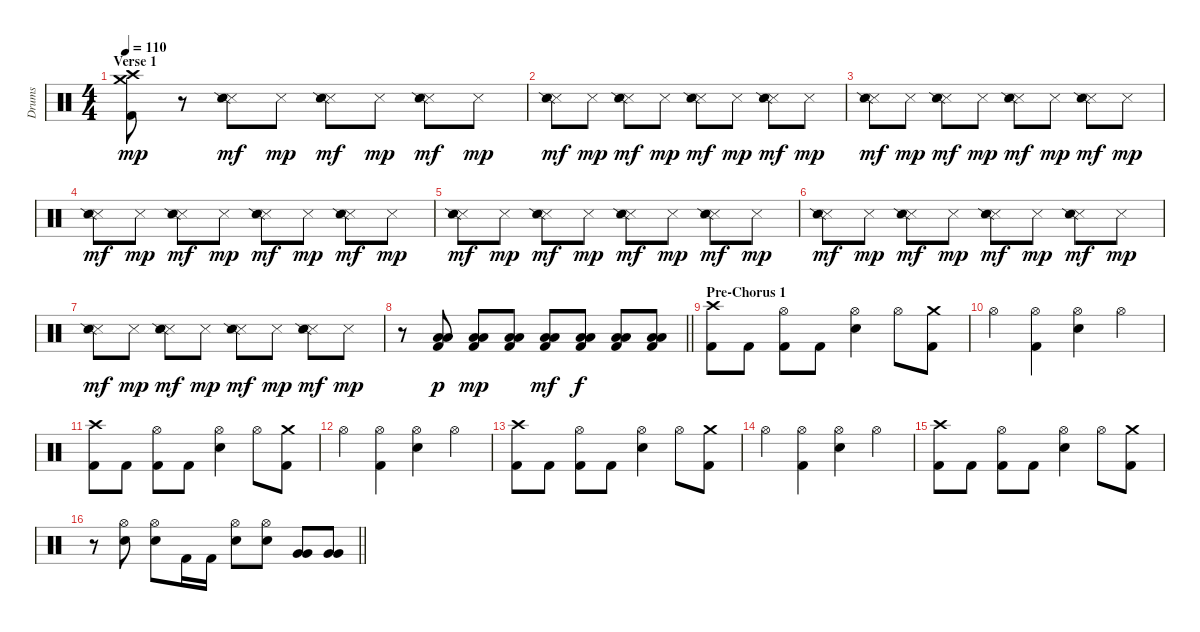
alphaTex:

\track ("Drums" "Drums") {instrument percussion}
\staff {score}
\articulation defaults
\ts (4 4)
\section ("" "Verse 1")
\tempo 110
\clef neutral
\ks c
("Crash high (hit)" "Crash medium (hit)" "Kick (hit) 2").8{dy mp} r.8 ("Snare (side stick) 3" "Snare (side stick) 2").8{dy mf} "Snare (side stick) 3".8{dy mp} ("Snare (side stick) 3" "Snare (side stick) 2").8{dy mf balance 12} "Snare (side stick) 3".8{dy mp balance 4} ("Snare (side stick) 3" "Snare (side stick) 2").8{dy mf} "Snare (side stick) 3".8{dy mp} |
("Snare (side stick) 3" "Snare (side stick) 2").8{dy mf balance 4} "Snare (side stick) 3".8{dy mp} ("Snare (side stick) 3" "Snare (side stick) 2").8{dy mf} "Snare (side stick) 3".8{dy mp} ("Snare (side stick) 3" "Snare (side stick) 2").8{dy mf} "Snare (side stick) 3".8{dy mp} ("Snare (side stick) 3" "Snare (side stick) 2").8{dy mf} "Snare (side stick) 3".8{dy mp} |
("Snare (side stick) 3" "Snare (side stick) 2").8{dy mf balance 12} "Snare (side stick) 3".8{dy mp} ("Snare (side stick) 3" "Snare (side stick) 2").8{dy mf} "Snare (side stick) 3".8{dy mp} ("Snare (side stick) 3" "Snare (side stick) 2").8{dy mf} "Snare (side stick) 3".8{dy mp} ("Snare (side stick) 3" "Snare (side stick) 2").8{dy mf} "Snare (side stick) 3".8{dy mp} |
("Snare (side stick) 3" "Snare (side stick) 2").8{dy mf balance 4} "Snare (side stick) 3".8{dy mp} ("Snare (side stick) 3" "Snare (side stick) 2").8{dy mf} "Snare (side stick) 3".8{dy mp} ("Snare (side stick) 3" "Snare (side stick) 2").8{dy mf} "Snare (side stick) 3".8{dy mp} ("Snare (side stick) 3" "Snare (side stick) 2").8{dy mf} "Snare (side stick) 3".8{dy mp} |
("Snare (side stick) 3" "Snare (side stick) 2").8{dy mf balance 12} "Snare (side stick) 3".8{dy mp} ("Snare (side stick) 3" "Snare (side stick) 2").8{dy mf} "Snare (side stick) 3".8{dy mp} ("Snare (side stick) 3" "Snare (side stick) 2").8{dy mf} "Snare (side stick) 3".8{dy mp} ("Snare (side stick) 3" "Snare (side stick) 2").8{dy mf} "Snare (side stick) 3".8{dy mp} |
("Snare (side stick) 3" "Snare (side stick) 2").8{dy mf balance 4} "Snare (side stick) 3".8{dy mp} ("Snare (side stick) 3" "Snare (side stick) 2").8{dy mf} "Snare (side stick) 3".8{dy mp} ("Snare (side stick) 3" "Snare (side stick) 2").8{dy mf} "Snare (side stick) 3".8{dy mp} ("Snare (side stick) 3" "Snare (side stick) 2").8{dy mf} "Snare (side stick) 3".8{dy mp} |
("Snare (side stick) 3" "Snare (side stick) 2").8{dy mf balance 12} "Snare (side stick) 3".8{dy mp} ("Snare (side stick) 3" "Snare (side stick) 2").8{dy mf} "Snare (side stick) 3".8{dy mp} ("Snare (side stick) 3" "Snare (side stick) 2").8{dy mf} "Snare (side stick) 3".8{dy mp} ("Snare (side stick) 3" "Snare (side stick) 2").8{dy mf} "Snare (side stick) 3".8{dy mp} |
\barLineRight lightlight
r.8{balance 8} ("Low Tom (hit)" "Low Floor Tom (hit)" "Kick (hit) 2").8{dy p} ("Low Tom (hit)" "Low Floor Tom (hit)" "Kick (hit) 2").8{dy mp} ("Low Tom (hit)" "Low Floor Tom (hit)" "Kick (hit) 2").8 ("Low Tom (hit)" "Low Floor Tom (hit)" "Kick (hit) 2").8{dy mf} ("Low Tom (hit)" "Low Floor Tom (hit)" "Kick (hit) 2").8{dy f} ("Low Tom (hit)" "Low Floor Tom (hit)" "Kick (hit) 2").8 ("Low Tom (hit)" "Low Floor Tom (hit)" "Kick (hit) 2").8 |
\section ("" "Pre-Chorus 1")
("Crash high (hit)" "Kick (hit) 2").8 "Kick (hit) 2".8 ("Hi-Hat (open)" "Kick (hit) 2").8 "Kick (hit) 2".8 ("Hi-Hat (open)" "Electric Snare (hit)").4 "Hi-Hat (open)".8 ("Crash medium (hit)" "Kick (hit) 2").8 |
"Hi-Hat (open)".4 ("Hi-Hat (open)" "Kick (hit) 2").4 ("Hi-Hat (open)" "Electric Snare (hit)").4 "Hi-Hat (open)".4 |
("Crash high (hit)" "Kick (hit) 2").8 "Kick (hit) 2".8 ("Hi-Hat (open)" "Kick (hit) 2").8 "Kick (hit) 2".8 ("Hi-Hat (open)" "Electric Snare (hit)").4 "Hi-Hat (open)".8 ("Crash medium (hit)" "Kick (hit) 2").8 |
"Hi-Hat (open)".4 ("Hi-Hat (open)" "Kick (hit) 2").4 ("Hi-Hat (open)" "Electric Snare (hit)").4 "Hi-Hat (open)".4 |
("Crash high (hit)" "Kick (hit) 2").8 "Kick (hit) 2".8 ("Hi-Hat (open)" "Kick (hit) 2").8 "Kick (hit) 2".8 ("Hi-Hat (open)" "Electric Snare (hit)").4 "Hi-Hat (open)".8 ("Crash medium (hit)" "Kick (hit) 2").8 |
"Hi-Hat (open)".4 ("Hi-Hat (open)" "Kick (hit) 2").4 ("Hi-Hat (open)" "Electric Snare (hit)").4 "Hi-Hat (open)".4 |
("Crash high (hit)" "Kick (hit) 2").8 "Kick (hit) 2".8 ("Hi-Hat (open)" "Kick (hit) 2").8 "Kick (hit) 2".8 ("Hi-Hat (open)" "Electric Snare (hit)").4 "Hi-Hat (open)".8 ("Crash medium (hit)" "Kick (hit) 2").8 |
\barLineRight lightlight
r.8 ("Hi-Hat (open)" "Electric Snare (hit)").8 ("Hi-Hat (open)" "Electric Snare (hit)").8 "Kick (hit) 2".16 "Kick (hit) 2".16 ("Hi-Hat (open)" "Electric Snare (hit)").8 ("Hi-Hat (open)" "Electric Snare (hit)").8 ("Very Low Tom (hit)" "Very Low Tom (hit)").8{bu 30} ("Very Low Tom (hit)" "Very Low Tom (hit)").8{bu 30}
